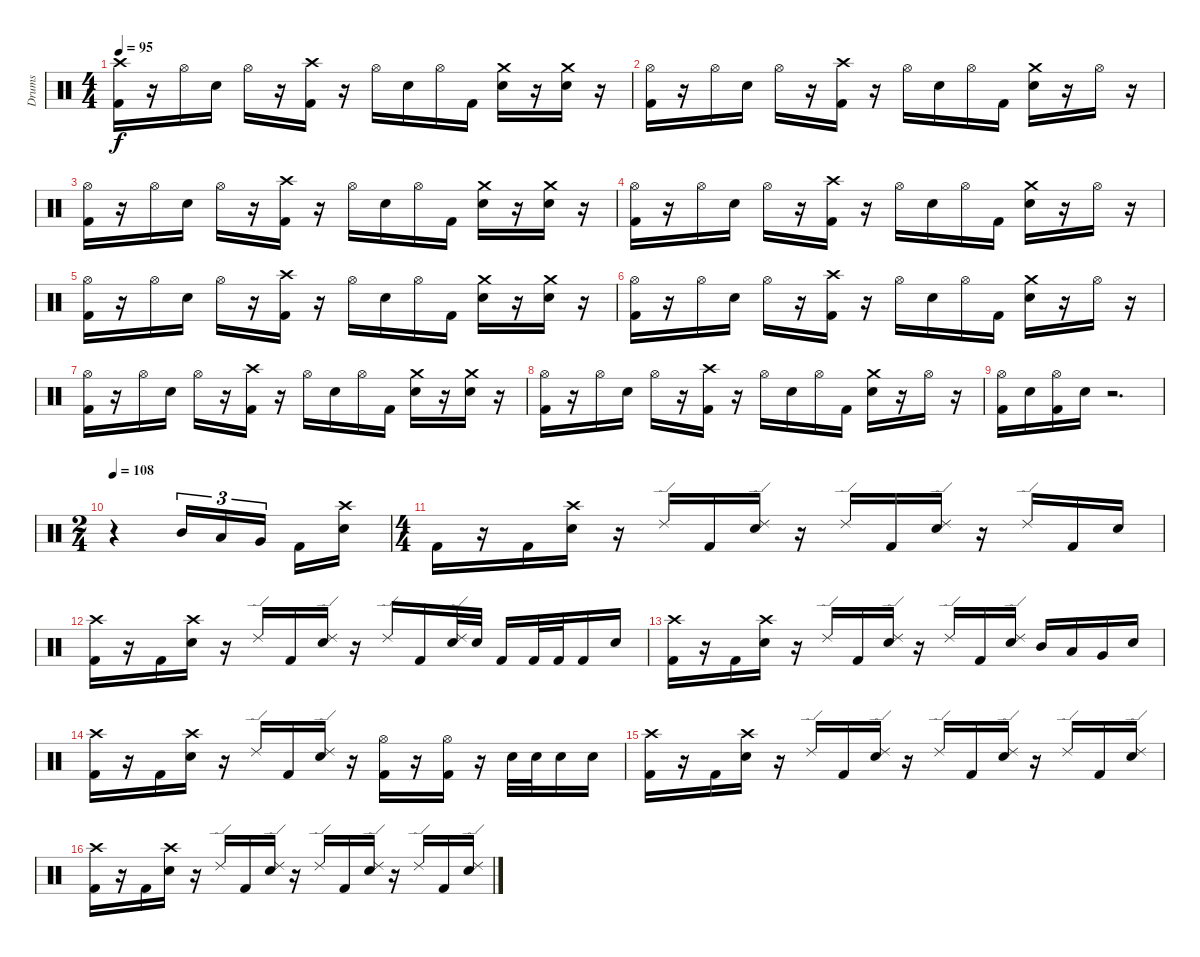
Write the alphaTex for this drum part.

\track ("Drums" "Drums") {instrument percussion}
\staff {score}
\articulation defaults
\ts (4 4)
\tempo 95
\clef neutral
\ks c
("Crash high (hit)" "Kick (hit) 2").16{dy f} r.16 "Hi-Hat (open)".16 "Electric Snare (hit)".16 "Hi-Hat (open)".16 r.16 ("Crash high (hit)" "Kick (hit) 2").16 r.16 "Hi-Hat (open)".16 "Electric Snare (hit)".16 "Hi-Hat (open)".16 "Kick (hit) 2".16 ("Crash medium (hit)" "Electric Snare (hit)").16 r.16 ("Crash medium (hit)" "Electric Snare (hit)").16 r.16 |
("Hi-Hat (open)" "Kick (hit) 2").16 r.16 "Hi-Hat (open)".16 "Electric Snare (hit)".16 "Hi-Hat (open)".16 r.16 ("Crash high (hit)" "Kick (hit) 2").16 r.16 "Hi-Hat (open)".16 "Electric Snare (hit)".16 "Hi-Hat (open)".16 "Kick (hit) 2".16 ("Crash medium (hit)" "Electric Snare (hit)").16 r.16 "Hi-Hat (open)".16 r.16 |
("Hi-Hat (open)" "Kick (hit) 2").16 r.16 "Hi-Hat (open)".16 "Electric Snare (hit)".16 "Hi-Hat (open)".16 r.16 ("Crash high (hit)" "Kick (hit) 2").16 r.16 "Hi-Hat (open)".16 "Electric Snare (hit)".16 "Hi-Hat (open)".16 "Kick (hit) 2".16 ("Crash medium (hit)" "Electric Snare (hit)").16 r.16 ("Crash medium (hit)" "Electric Snare (hit)").16 r.16 |
("Hi-Hat (open)" "Kick (hit) 2").16 r.16 "Hi-Hat (open)".16 "Electric Snare (hit)".16 "Hi-Hat (open)".16 r.16 ("Crash high (hit)" "Kick (hit) 2").16 r.16 "Hi-Hat (open)".16 "Electric Snare (hit)".16 "Hi-Hat (open)".16 "Kick (hit) 2".16 ("Crash medium (hit)" "Electric Snare (hit)").16 r.16 "Hi-Hat (open)".16 r.16 |
("Hi-Hat (open)" "Kick (hit) 2").16 r.16 "Hi-Hat (open)".16 "Electric Snare (hit)".16 "Hi-Hat (open)".16 r.16 ("Crash high (hit)" "Kick (hit) 2").16 r.16 "Hi-Hat (open)".16 "Electric Snare (hit)".16 "Hi-Hat (open)".16 "Kick (hit) 2".16 ("Crash medium (hit)" "Electric Snare (hit)").16 r.16 ("Crash medium (hit)" "Electric Snare (hit)").16 r.16 |
("Hi-Hat (open)" "Kick (hit) 2").16 r.16 "Hi-Hat (open)".16 "Electric Snare (hit)".16 "Hi-Hat (open)".16 r.16 ("Crash high (hit)" "Kick (hit) 2").16 r.16 "Hi-Hat (open)".16 "Electric Snare (hit)".16 "Hi-Hat (open)".16 "Kick (hit) 2".16 ("Crash medium (hit)" "Electric Snare (hit)").16 r.16 "Hi-Hat (open)".16 r.16 |
("Hi-Hat (open)" "Kick (hit) 2").16 r.16 "Hi-Hat (open)".16 "Electric Snare (hit)".16 "Hi-Hat (open)".16 r.16 ("Crash high (hit)" "Kick (hit) 2").16 r.16 "Hi-Hat (open)".16 "Electric Snare (hit)".16 "Hi-Hat (open)".16 "Kick (hit) 2".16 ("Crash medium (hit)" "Electric Snare (hit)").16 r.16 ("Crash medium (hit)" "Electric Snare (hit)").16 r.16 |
("Hi-Hat (open)" "Kick (hit) 2").16 r.16 "Hi-Hat (open)".16 "Electric Snare (hit)".16 "Hi-Hat (open)".16 r.16 ("Crash high (hit)" "Kick (hit) 2").16 r.16 "Hi-Hat (open)".16 "Electric Snare (hit)".16 "Hi-Hat (open)".16 "Kick (hit) 2".16 ("Crash medium (hit)" "Electric Snare (hit)").16 r.16 "Hi-Hat (open)".16 r.16 |
("Hi-Hat (open)" "Kick (hit) 2").16 "Electric Snare (hit)".16 ("Hi-Hat (open)" "Kick (hit) 2").16 "Electric Snare (hit)".16 r.2{d} |
\ts (2 4)
\tempo 108
r.4 "Mid Tom (hit)".16{tu (3 2)} "Low Tom (hit)".16{tu (3 2)} "Very Low Tom (hit)".16{tu (3 2) beam splitsecondary} "Kick (hit) 2".16 ("Crash high (hit)" "Electric Snare (hit)").16 |
\ts (4 4)
"Kick (hit) 2".16 r.16 "Kick (hit) 2".16 ("Crash high (hit)" "Electric Snare (hit)").16 r.16 "Ride (edge) 2".16 "Kick (hit) 2".16 ("Ride (edge) 2" "Electric Snare (hit)").16 r.16 "Ride (edge) 2".16 "Kick (hit) 2".16 ("Ride (edge) 2" "Electric Snare (hit)").16 r.16 "Ride (edge) 2".16 "Kick (hit) 2".16 "Electric Snare (hit)".16 |
("Crash high (hit)" "Kick (hit) 2").16 r.16 "Kick (hit) 2".16 ("Crash high (hit)" "Electric Snare (hit)").16 r.16 "Ride (edge) 2".16 "Kick (hit) 2".16 ("Ride (edge) 2" "Electric Snare (hit)").16 r.16 "Ride (edge) 2".16 "Kick (hit) 2".16 ("Ride (edge) 2" "Electric Snare (hit)").32 "Electric Snare (hit)".32 "Kick (hit) 2".16 "Kick (hit) 2".32 "Kick (hit) 2".32 "Kick (hit) 2".16 "Electric Snare (hit)".16 |
("Crash high (hit)" "Kick (hit) 2").16 r.16 "Kick (hit) 2".16 ("Crash high (hit)" "Electric Snare (hit)").16 r.16 "Ride (edge) 2".16 "Kick (hit) 2".16 ("Ride (edge) 2" "Electric Snare (hit)").16 r.16 "Ride (edge) 2".16 "Kick (hit) 2".16 ("Ride (edge) 2" "Electric Snare (hit)").16 "Mid Tom (hit)".16 "Low Tom (hit)".16 "Very Low Tom (hit)".16 "Electric Snare (hit)".16 |
("Crash high (hit)" "Kick (hit) 2").16 r.16 "Kick (hit) 2".16 ("Crash high (hit)" "Electric Snare (hit)").16 r.16 "Ride (edge) 2".16 "Kick (hit) 2".16 ("Ride (edge) 2" "Electric Snare (hit)").16 r.16 ("Hi-Hat (open)" "Kick (hit) 2").16 r.16 ("Hi-Hat (open)" "Kick (hit) 2").16 r.16 "Electric Snare (hit)".32 "Electric Snare (hit)".32 "Electric Snare (hit)".16 "Electric Snare (hit)".16 |
("Crash high (hit)" "Kick (hit) 2").16 r.16 "Kick (hit) 2".16 ("Crash high (hit)" "Electric Snare (hit)").16 r.16 "Ride (edge) 2".16 "Kick (hit) 2".16 ("Ride (edge) 2" "Electric Snare (hit)").16 r.16 "Ride (edge) 2".16 "Kick (hit) 2".16 ("Ride (edge) 2" "Electric Snare (hit)").16 r.16 "Ride (edge) 2".16 "Kick (hit) 2".16 ("Ride (edge) 2" "Electric Snare (hit)").16 |
("Crash high (hit)" "Kick (hit) 2").16 r.16 "Kick (hit) 2".16 ("Crash high (hit)" "Electric Snare (hit)").16 r.16 "Ride (edge) 2".16 "Kick (hit) 2".16 ("Ride (edge) 2" "Electric Snare (hit)").16 r.16 "Ride (edge) 2".16 "Kick (hit) 2".16 ("Ride (edge) 2" "Electric Snare (hit)").16 r.16 "Ride (edge) 2".16 "Kick (hit) 2".16 ("Ride (edge) 2" "Electric Snare (hit)").16
